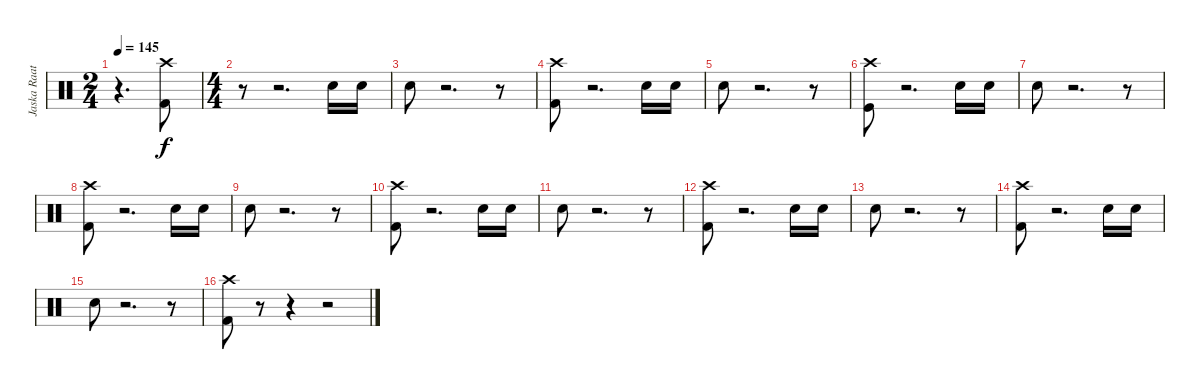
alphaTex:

\track ("Jaska Raatikainen" "Jaska Raat") {instrument percussion}
\staff {score}
\articulation defaults
\ts (2 4)
\tempo 145
\tempo 160
\tempo 145
\clef neutral
\ks c
r.4{d dy f} ("Kick (hit) 2" "Crash high (hit)").8 |
\ts (4 4)
r.8 r.2{d} "Electric Snare (hit)".16 "Electric Snare (hit)".16 |
"Electric Snare (hit)".8 r.2{d} r.8 |
("Kick (hit) 2" "Crash high (hit)").8 r.2{d} "Electric Snare (hit)".16 "Electric Snare (hit)".16 |
"Electric Snare (hit)".8 r.2{d} r.8 |
("Kick (hit)" "Crash high (hit)").8 r.2{d} "Electric Snare (hit)".16 "Electric Snare (hit)".16 |
"Electric Snare (hit)".8 r.2{d} r.8 |
("Kick (hit) 2" "Crash high (hit)").8 r.2{d} "Electric Snare (hit)".16 "Electric Snare (hit)".16 |
"Electric Snare (hit)".8 r.2{d} r.8 |
("Kick (hit) 2" "Crash high (hit)").8 r.2{d} "Electric Snare (hit)".16 "Electric Snare (hit)".16 |
"Electric Snare (hit)".8 r.2{d} r.8 |
("Kick (hit) 2" "Crash high (hit)").8 r.2{d} "Electric Snare (hit)".16 "Electric Snare (hit)".16 |
"Electric Snare (hit)".8 r.2{d} r.8 |
("Kick (hit) 2" "Crash high (hit)").8 r.2{d} "Electric Snare (hit)".16 "Electric Snare (hit)".16 |
"Electric Snare (hit)".8 r.2{d} r.8 |
("Kick (hit) 2" "Crash high (hit)").8 r.8 r.4 r.2
